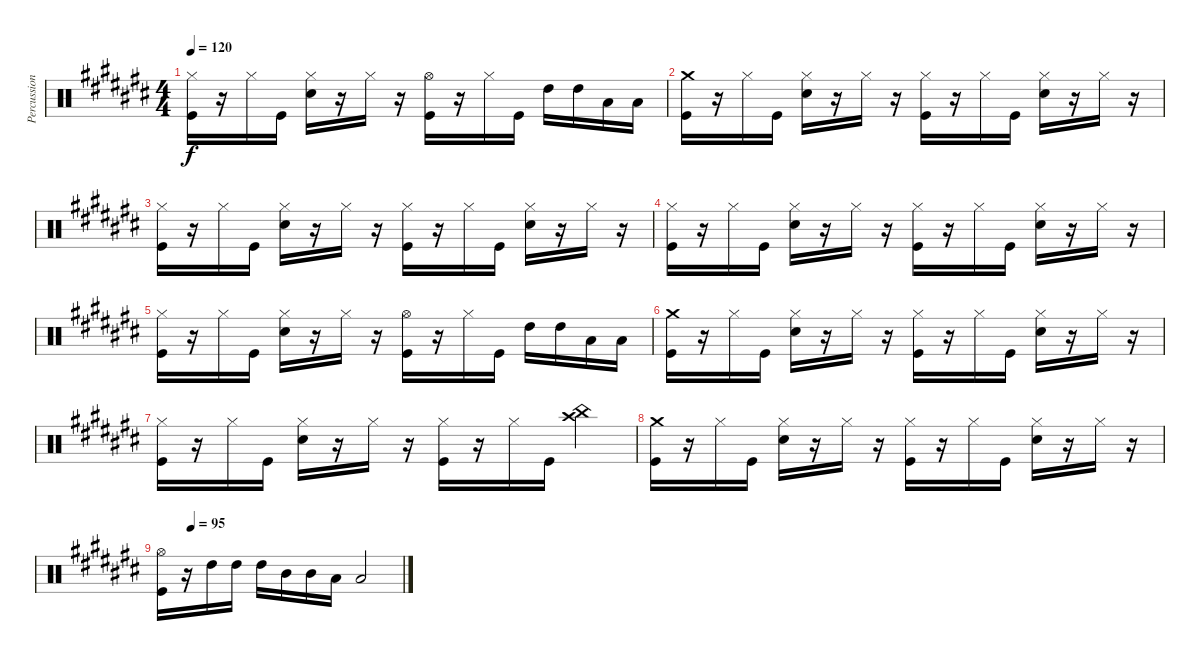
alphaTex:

\track ("Percussion" "Percussion") {instrument percussion}
\staff {score}
\articulation defaults
\ts (4 4)
\tempo 120
\clef neutral
\ks c#
("Hi-Hat (closed)" "Kick (hit)").16{dy f} r.16 "Hi-Hat (closed)".16 "Kick (hit)".16 ("Hi-Hat (closed)" "Snare (hit) 2").16 r.16 "Hi-Hat (closed)".16 r.16 ("Hi-Hat (open)" "Kick (hit)").16 r.16 "Hi-Hat (closed)".16 "Kick (hit)".16 "High Tom (hit)".16 "High Tom (hit)".16 "Low Tom (hit)".16 "Low Tom (hit)".16 |
("Crash medium (hit)" "Kick (hit)").16 r.16 "Hi-Hat (closed)".16 "Kick (hit)".16 ("Hi-Hat (closed)" "Snare (hit) 2").16 r.16 "Hi-Hat (closed)".16 r.16 ("Hi-Hat (closed)" "Kick (hit)").16 r.16 "Hi-Hat (closed)".16 "Kick (hit)".16 ("Hi-Hat (closed)" "Snare (hit) 2").16 r.16 "Hi-Hat (closed)".16 r.16 |
("Hi-Hat (closed)" "Kick (hit)").16 r.16 "Hi-Hat (closed)".16 "Kick (hit)".16 ("Hi-Hat (closed)" "Snare (hit) 2").16 r.16 "Hi-Hat (closed)".16 r.16 ("Hi-Hat (closed)" "Kick (hit)").16 r.16 "Hi-Hat (closed)".16 "Kick (hit)".16 ("Hi-Hat (closed)" "Snare (hit) 2").16 r.16 "Hi-Hat (closed)".16 r.16 |
("Hi-Hat (closed)" "Kick (hit)").16 r.16 "Hi-Hat (closed)".16 "Kick (hit)".16 ("Hi-Hat (closed)" "Snare (hit) 2").16 r.16 "Hi-Hat (closed)".16 r.16 ("Hi-Hat (closed)" "Kick (hit)").16 r.16 "Hi-Hat (closed)".16 "Kick (hit)".16 ("Hi-Hat (closed)" "Snare (hit) 2").16 r.16 "Hi-Hat (closed)".16 r.16 |
("Hi-Hat (closed)" "Kick (hit)").16 r.16 "Hi-Hat (closed)".16 "Kick (hit)".16 ("Hi-Hat (closed)" "Snare (hit) 2").16 r.16 "Hi-Hat (closed)".16 r.16 ("Hi-Hat (open)" "Kick (hit)").16 r.16 "Hi-Hat (closed)".16 "Kick (hit)".16 "High Tom (hit)".16 "High Tom (hit)".16 "Low Tom (hit)".16 "Low Tom (hit)".16 |
("Crash medium (hit)" "Kick (hit)").16 r.16 "Hi-Hat (closed)".16 "Kick (hit)".16 ("Hi-Hat (closed)" "Snare (hit) 2").16 r.16 "Hi-Hat (closed)".16 r.16 ("Hi-Hat (closed)" "Kick (hit)").16 r.16 "Hi-Hat (closed)".16 "Kick (hit)".16 ("Hi-Hat (closed)" "Snare (hit) 2").16 r.16 "Hi-Hat (closed)".16 r.16 |
("Hi-Hat (closed)" "Kick (hit)").16 r.16 "Hi-Hat (closed)".16 "Kick (hit)".16 ("Hi-Hat (closed)" "Snare (hit) 2").16 r.16 "Hi-Hat (closed)".16 r.16 ("Hi-Hat (closed)" "Kick (hit)").16 r.16 "Hi-Hat (closed)".16 "Kick (hit)".16 ("Crash high (hit)" "China (hit)").4 |
("Crash medium (hit)" "Kick (hit)").16 r.16 "Hi-Hat (closed)".16 "Kick (hit)".16 ("Hi-Hat (closed)" "Snare (hit) 2").16 r.16 "Hi-Hat (closed)".16 r.16 ("Hi-Hat (closed)" "Kick (hit)").16 r.16 "Hi-Hat (closed)".16 "Kick (hit)".16 ("Hi-Hat (closed)" "Snare (hit) 2").16 r.16 "Hi-Hat (closed)".16 r.16 |
\tempo (95 0.125)
("Hi-Hat (open)" "Kick (hit)").16 r.16 "High Tom (hit)".16 "High Tom (hit)".16 "High Tom (hit)".16 "Mid Tom (hit)".16 "Mid Tom (hit)".16 "Low Tom (hit)".16 "Low Tom (hit)".2
